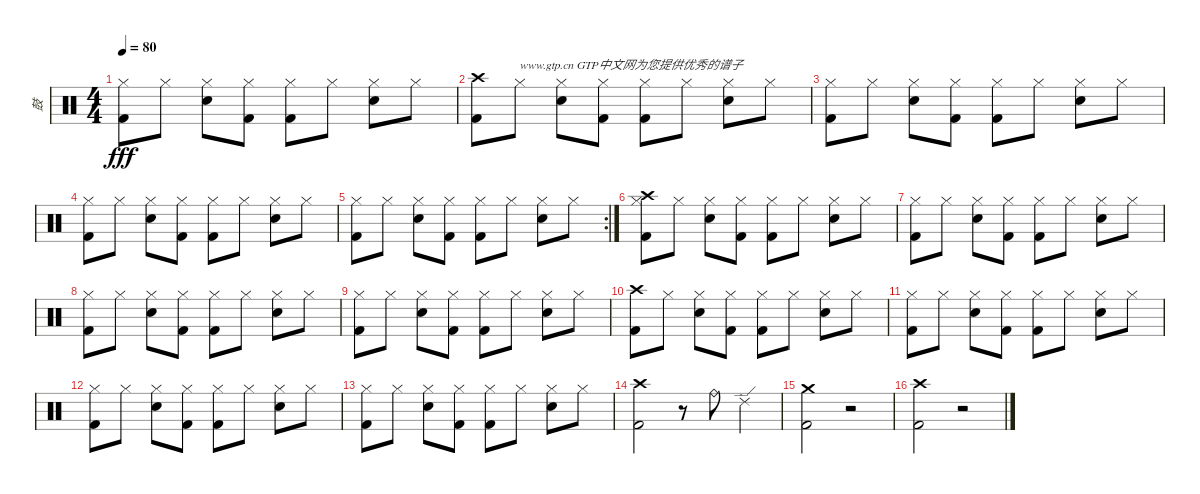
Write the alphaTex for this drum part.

\track ("鼓" "鼓") {instrument percussion}
\staff {score}
\articulation defaults
\ts (4 4)
\tempo 80
\clef neutral
\ks c
("Hi-Hat (closed)" "Kick (hit) 2").8{dy fff} "Hi-Hat (closed)".8 ("Hi-Hat (closed)" "Snare (hit) 2").8 ("Hi-Hat (closed)" "Kick (hit) 2").8 ("Hi-Hat (closed)" "Kick (hit) 2").8 "Hi-Hat (closed)".8 ("Hi-Hat (closed)" "Snare (hit) 2").8 "Hi-Hat (closed)".8 |
("Crash high (hit)" "Kick (hit) 2").8 "Hi-Hat (closed)".8{txt "www.gtp.cn GTP中文网为您提供优秀的谱子"} ("Hi-Hat (closed)" "Snare (hit) 2").8 ("Hi-Hat (closed)" "Kick (hit) 2").8 ("Hi-Hat (closed)" "Kick (hit) 2").8 "Hi-Hat (closed)".8 ("Hi-Hat (closed)" "Snare (hit) 2").8 "Hi-Hat (closed)".8 |
("Hi-Hat (closed)" "Kick (hit) 2").8 "Hi-Hat (closed)".8 ("Hi-Hat (closed)" "Snare (hit) 2").8 ("Hi-Hat (closed)" "Kick (hit) 2").8 ("Hi-Hat (closed)" "Kick (hit) 2").8 "Hi-Hat (closed)".8 ("Hi-Hat (closed)" "Snare (hit) 2").8 "Hi-Hat (closed)".8 |
("Hi-Hat (closed)" "Kick (hit) 2").8 "Hi-Hat (closed)".8 ("Hi-Hat (closed)" "Snare (hit) 2").8 ("Hi-Hat (closed)" "Kick (hit) 2").8 ("Hi-Hat (closed)" "Kick (hit) 2").8 "Hi-Hat (closed)".8 ("Hi-Hat (closed)" "Snare (hit) 2").8 "Hi-Hat (closed)".8 |
\rc 2
("Hi-Hat (closed)" "Kick (hit) 2").8 "Hi-Hat (closed)".8 ("Hi-Hat (closed)" "Snare (hit) 2").8 ("Hi-Hat (closed)" "Kick (hit) 2").8 ("Hi-Hat (closed)" "Kick (hit) 2").8 "Hi-Hat (closed)".8 ("Hi-Hat (closed)" "Snare (hit) 2").8 "Hi-Hat (closed)".8 |
("Hi-Hat (closed)" "Crash high (hit)" "Kick (hit) 2").8 "Hi-Hat (closed)".8 ("Hi-Hat (closed)" "Snare (hit) 2").8 ("Hi-Hat (closed)" "Kick (hit) 2").8 ("Hi-Hat (closed)" "Kick (hit) 2").8 "Hi-Hat (closed)".8 ("Hi-Hat (closed)" "Snare (hit) 2").8 "Hi-Hat (closed)".8 |
("Hi-Hat (closed)" "Kick (hit) 2").8 "Hi-Hat (closed)".8 ("Hi-Hat (closed)" "Snare (hit) 2").8 ("Hi-Hat (closed)" "Kick (hit) 2").8 ("Hi-Hat (closed)" "Kick (hit) 2").8 "Hi-Hat (closed)".8 ("Hi-Hat (closed)" "Snare (hit) 2").8 "Hi-Hat (closed)".8 |
("Hi-Hat (closed)" "Kick (hit) 2").8 "Hi-Hat (closed)".8 ("Hi-Hat (closed)" "Snare (hit) 2").8 ("Hi-Hat (closed)" "Kick (hit) 2").8 ("Hi-Hat (closed)" "Kick (hit) 2").8 "Hi-Hat (closed)".8 ("Hi-Hat (closed)" "Snare (hit) 2").8 "Hi-Hat (closed)".8 |
("Hi-Hat (closed)" "Kick (hit) 2").8 "Hi-Hat (closed)".8 ("Hi-Hat (closed)" "Snare (hit) 2").8 ("Hi-Hat (closed)" "Kick (hit) 2").8 ("Hi-Hat (closed)" "Kick (hit) 2").8 "Hi-Hat (closed)".8 ("Hi-Hat (closed)" "Snare (hit) 2").8 "Hi-Hat (closed)".8 |
("Crash high (hit)" "Kick (hit) 2").8 "Hi-Hat (closed)".8 ("Hi-Hat (closed)" "Snare (hit) 2").8 ("Hi-Hat (closed)" "Kick (hit) 2").8 ("Hi-Hat (closed)" "Kick (hit) 2").8 "Hi-Hat (closed)".8 ("Hi-Hat (closed)" "Snare (hit) 2").8 "Hi-Hat (closed)".8 |
("Hi-Hat (closed)" "Kick (hit) 2").8 "Hi-Hat (closed)".8 ("Hi-Hat (closed)" "Snare (hit) 2").8 ("Hi-Hat (closed)" "Kick (hit) 2").8 ("Hi-Hat (closed)" "Kick (hit) 2").8 "Hi-Hat (closed)".8 ("Hi-Hat (closed)" "Snare (hit) 2").8 "Hi-Hat (closed)".8 |
("Hi-Hat (closed)" "Kick (hit) 2").8 "Hi-Hat (closed)".8 ("Hi-Hat (closed)" "Snare (hit) 2").8 ("Hi-Hat (closed)" "Kick (hit) 2").8 ("Hi-Hat (closed)" "Kick (hit) 2").8 "Hi-Hat (closed)".8 ("Hi-Hat (closed)" "Snare (hit) 2").8 "Hi-Hat (closed)".8 |
("Hi-Hat (closed)" "Kick (hit) 2").8 "Hi-Hat (closed)".8 ("Hi-Hat (closed)" "Snare (hit) 2").8 ("Hi-Hat (closed)" "Kick (hit) 2").8 ("Hi-Hat (closed)" "Kick (hit) 2").8 "Hi-Hat (closed)".8 ("Hi-Hat (closed)" "Snare (hit) 2").8 "Hi-Hat (closed)".8 |
("Crash high (hit)" "Kick (hit) 2").2 r.8 "Ride (bell)".8 "Ride (edge) 2".4 |
("Crash medium (hit)" "Kick (hit) 2").2 r.2 |
("Crash high (hit)" "Kick (hit) 2").2 r.2
